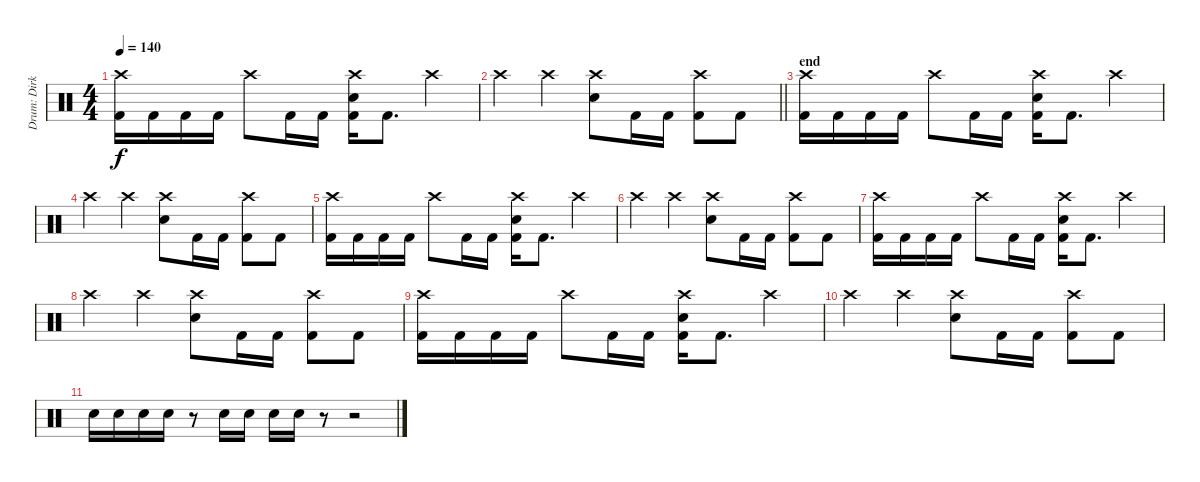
\track ("Drum: Dirk" "Drum: Dirk") {instrument percussion}
\staff {score}
\articulation defaults
\ts (4 4)
\tempo 140
\clef neutral
\ks c
("Crash high (hit)" "Kick (hit) 2").16{dy f} "Kick (hit) 2".16 "Kick (hit) 2".16 "Kick (hit) 2".16 "Crash high (hit)".8 "Kick (hit) 2".16 "Kick (hit) 2".16 ("Crash high (hit)" "Electric Snare (hit)" "Kick (hit) 2").16 "Kick (hit) 2".8{d} "Crash high (hit)".4 |
\barLineRight lightlight "Crash high (hit)".4 "Crash high (hit)".4
("Crash high (hit)" "Electric Snare (hit)").8 "Kick (hit) 2".16 "Kick (hit) 2".16 ("Crash high (hit)" "Kick (hit) 2").8 "Kick (hit) 2".8 |
\section ("" "end")
("Crash high (hit)" "Kick (hit) 2").16 "Kick (hit) 2".16 "Kick (hit) 2".16 "Kick (hit) 2".16 "Crash high (hit)".8 "Kick (hit) 2".16 "Kick (hit) 2".16 ("Crash high (hit)" "Electric Snare (hit)" "Kick (hit) 2").16 "Kick (hit) 2".8{d} "Crash high (hit)".4 |
"Crash high (hit)".4 "Crash high (hit)".4 ("Crash high (hit)" "Electric Snare (hit)").8 "Kick (hit) 2".16 "Kick (hit) 2".16 ("Crash high (hit)" "Kick (hit) 2").8 "Kick (hit) 2".8 |
("Crash high (hit)" "Kick (hit) 2").16 "Kick (hit) 2".16 "Kick (hit) 2".16 "Kick (hit) 2".16 "Crash high (hit)".8 "Kick (hit) 2".16 "Kick (hit) 2".16 ("Crash high (hit)" "Electric Snare (hit)" "Kick (hit) 2").16 "Kick (hit) 2".8{d} "Crash high (hit)".4 |
"Crash high (hit)".4 "Crash high (hit)".4 ("Crash high (hit)" "Electric Snare (hit)").8 "Kick (hit) 2".16 "Kick (hit) 2".16 ("Crash high (hit)" "Kick (hit) 2").8 "Kick (hit) 2".8 |
("Crash high (hit)" "Kick (hit) 2").16 "Kick (hit) 2".16 "Kick (hit) 2".16 "Kick (hit) 2".16 "Crash high (hit)".8 "Kick (hit) 2".16 "Kick (hit) 2".16 ("Crash high (hit)" "Electric Snare (hit)" "Kick (hit) 2").16 "Kick (hit) 2".8{d} "Crash high (hit)".4 |
"Crash high (hit)".4 "Crash high (hit)".4 ("Crash high (hit)" "Electric Snare (hit)").8 "Kick (hit) 2".16 "Kick (hit) 2".16 ("Crash high (hit)" "Kick (hit) 2").8 "Kick (hit) 2".8 |
("Crash high (hit)" "Kick (hit) 2").16 "Kick (hit) 2".16 "Kick (hit) 2".16 "Kick (hit) 2".16 "Crash high (hit)".8 "Kick (hit) 2".16 "Kick (hit) 2".16 ("Crash high (hit)" "Electric Snare (hit)" "Kick (hit) 2").16 "Kick (hit) 2".8{d} "Crash high (hit)".4 |
"Crash high (hit)".4 "Crash high (hit)".4 ("Crash high (hit)" "Electric Snare (hit)").8 "Kick (hit) 2".16 "Kick (hit) 2".16 ("Crash high (hit)" "Kick (hit) 2").8 "Kick (hit) 2".8 |
"Electric Snare (hit)".16 "Electric Snare (hit)".16 "Electric Snare (hit)".16 "Electric Snare (hit)".16 r.8 "Electric Snare (hit)".16 "Electric Snare (hit)".16 "Electric Snare (hit)".16 "Electric Snare (hit)".16 r.8 r.2
